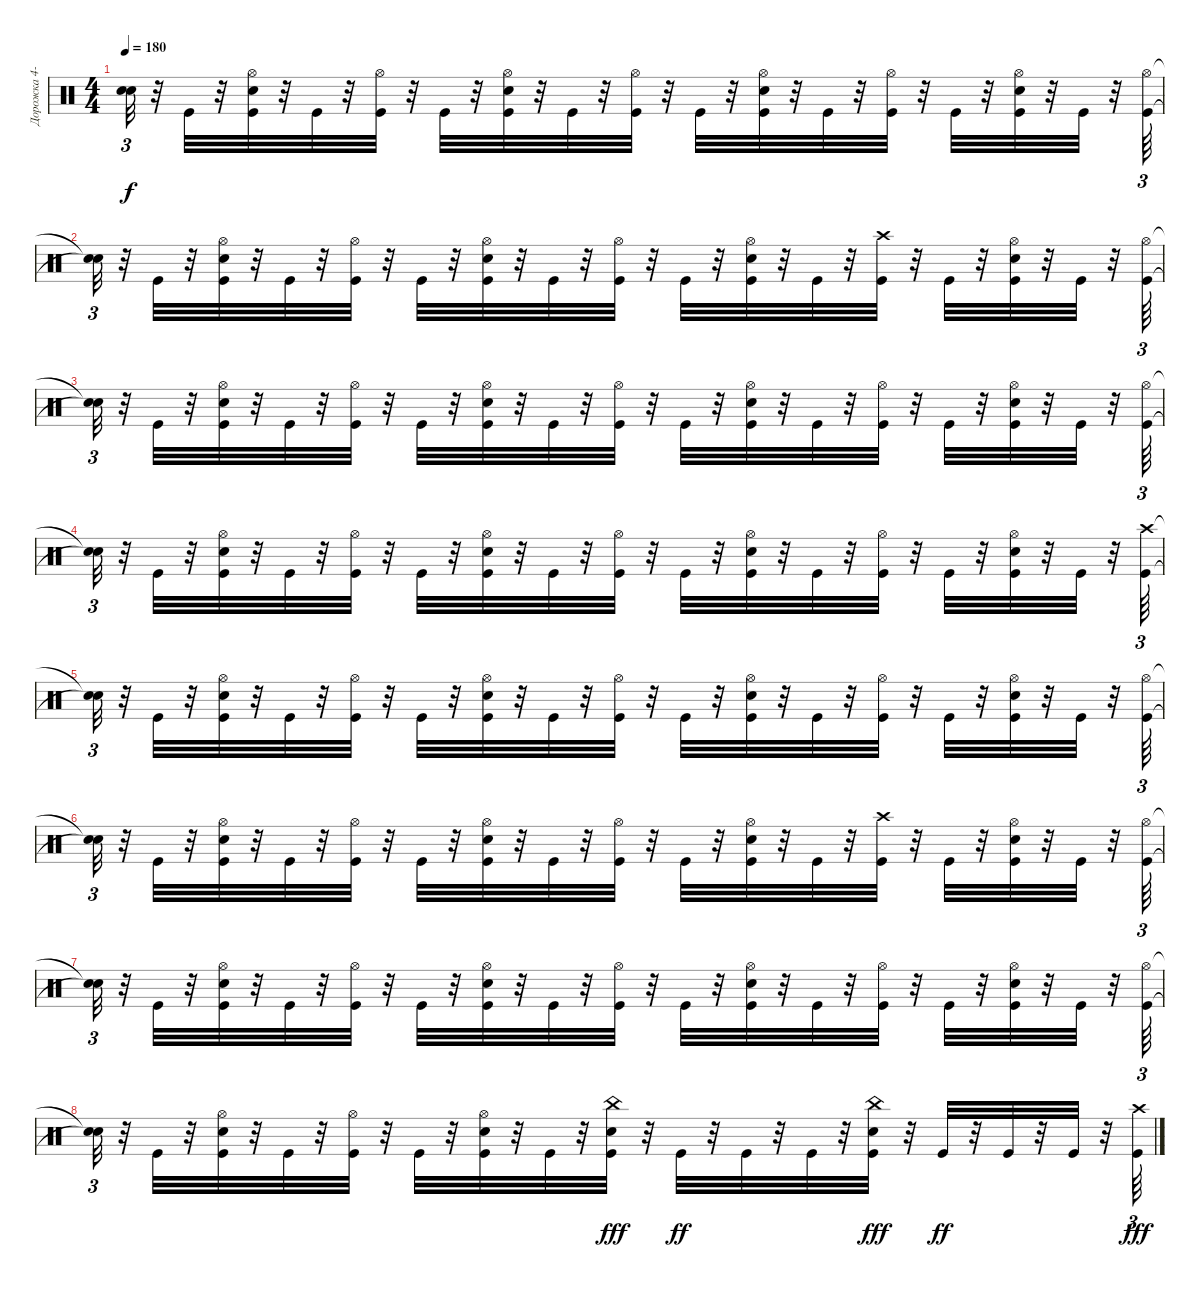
\track ("Дорожка 4-10-11" "Дорожка 4-") {instrument percussion}
\staff {score}
\articulation defaults
\ts (4 4)
\tempo 180
\clef neutral
\ks c
("Snare (hit)"{t} "Snare (hit)"{t}).32{tu (3 2) dy f} r.32 "Kick (hit)".32 r.32 ("Hi-Hat (open)" "Snare (hit) 2" "Kick (hit)").32 r.32 "Kick (hit)".32 r.32 ("Kick (hit)" "Hi-Hat (open)").32 r.32 "Kick (hit)".32 r.32 ("Snare (hit) 2" "Kick (hit)" "Hi-Hat (open)").32 r.32 "Kick (hit)".32 r.32 ("Hi-Hat (open)" "Kick (hit)").32 r.32 "Kick (hit)".32 r.32 ("Hi-Hat (open)" "Snare (hit) 2" "Kick (hit)").32 r.32 "Kick (hit)".32 r.32 ("Hi-Hat (open)" "Kick (hit)").32 r.32 "Kick (hit)".32 r.32 ("Hi-Hat (open)" "Snare (hit) 2" "Kick (hit)").32 r.32 "Kick (hit)".32 r.32 ("Hi-Hat (open)" "Kick (hit)").64{tu (3 2)} |
("Snare (hit)"{t} "Snare (hit)"{t}).32{tu (3 2)} r.32 "Kick (hit)".32 r.32 ("Hi-Hat (open)" "Snare (hit) 2" "Kick (hit)").32 r.32 "Kick (hit)".32 r.32 ("Kick (hit)" "Hi-Hat (open)").32 r.32 "Kick (hit)".32 r.32 ("Snare (hit) 2" "Kick (hit)" "Hi-Hat (open)").32 r.32 "Kick (hit)".32 r.32 ("Hi-Hat (open)" "Kick (hit)").32 r.32 "Kick (hit)".32 r.32 ("Hi-Hat (open)" "Snare (hit) 2" "Kick (hit)").32 r.32 "Kick (hit)".32 r.32 ("Crash high (hit)" "Kick (hit)").32 r.32 "Kick (hit)".32 r.32 ("Hi-Hat (open)" "Snare (hit) 2" "Kick (hit)").32 r.32 "Kick (hit)".32 r.32 ("Hi-Hat (open)" "Kick (hit)").64{tu (3 2)} |
("Snare (hit)"{t} "Snare (hit)"{t}).32{tu (3 2)} r.32 "Kick (hit)".32 r.32 ("Hi-Hat (open)" "Snare (hit) 2" "Kick (hit)").32 r.32 "Kick (hit)".32 r.32 ("Kick (hit)" "Hi-Hat (open)").32 r.32 "Kick (hit)".32 r.32 ("Snare (hit) 2" "Kick (hit)" "Hi-Hat (open)").32 r.32 "Kick (hit)".32 r.32 ("Hi-Hat (open)" "Kick (hit)").32 r.32 "Kick (hit)".32 r.32 ("Hi-Hat (open)" "Snare (hit) 2" "Kick (hit)").32 r.32 "Kick (hit)".32 r.32 ("Hi-Hat (open)" "Kick (hit)").32 r.32 "Kick (hit)".32 r.32 ("Hi-Hat (open)" "Snare (hit) 2" "Kick (hit)").32 r.32 "Kick (hit)".32 r.32 ("Hi-Hat (open)" "Kick (hit)").64{tu (3 2)} |
("Snare (hit)"{t} "Snare (hit)"{t}).32{tu (3 2)} r.32 "Kick (hit)".32 r.32 ("Hi-Hat (open)" "Snare (hit) 2" "Kick (hit)").32 r.32 "Kick (hit)".32 r.32 ("Kick (hit)" "Hi-Hat (open)").32 r.32 "Kick (hit)".32 r.32 ("Snare (hit) 2" "Kick (hit)" "Hi-Hat (open)").32 r.32 "Kick (hit)".32 r.32 ("Hi-Hat (open)" "Kick (hit)").32 r.32 "Kick (hit)".32 r.32 ("Hi-Hat (open)" "Snare (hit) 2" "Kick (hit)").32 r.32 "Kick (hit)".32 r.32 ("Hi-Hat (open)" "Kick (hit)").32 r.32 "Kick (hit)".32 r.32 ("Hi-Hat (open)" "Snare (hit) 2" "Kick (hit)").32 r.32 "Kick (hit)".32 r.32 ("Crash high (hit)" "Kick (hit)").64{tu (3 2)} |
("Snare (hit)"{t} "Snare (hit)"{t}).32{tu (3 2)} r.32 "Kick (hit)".32 r.32 ("Hi-Hat (open)" "Snare (hit) 2" "Kick (hit)").32 r.32 "Kick (hit)".32 r.32 ("Kick (hit)" "Hi-Hat (open)").32 r.32 "Kick (hit)".32 r.32 ("Snare (hit) 2" "Kick (hit)" "Hi-Hat (open)").32 r.32 "Kick (hit)".32 r.32 ("Hi-Hat (open)" "Kick (hit)").32 r.32 "Kick (hit)".32 r.32 ("Hi-Hat (open)" "Snare (hit) 2" "Kick (hit)").32 r.32 "Kick (hit)".32 r.32 ("Hi-Hat (open)" "Kick (hit)").32 r.32 "Kick (hit)".32 r.32 ("Hi-Hat (open)" "Snare (hit) 2" "Kick (hit)").32 r.32 "Kick (hit)".32 r.32 ("Hi-Hat (open)" "Kick (hit)").64{tu (3 2)} |
("Snare (hit)"{t} "Snare (hit)"{t}).32{tu (3 2)} r.32 "Kick (hit)".32 r.32 ("Hi-Hat (open)" "Snare (hit) 2" "Kick (hit)").32 r.32 "Kick (hit)".32 r.32 ("Kick (hit)" "Hi-Hat (open)").32 r.32 "Kick (hit)".32 r.32 ("Snare (hit) 2" "Kick (hit)" "Hi-Hat (open)").32 r.32 "Kick (hit)".32 r.32 ("Hi-Hat (open)" "Kick (hit)").32 r.32 "Kick (hit)".32 r.32 ("Hi-Hat (open)" "Snare (hit) 2" "Kick (hit)").32 r.32 "Kick (hit)".32 r.32 ("Crash high (hit)" "Kick (hit)").32 r.32 "Kick (hit)".32 r.32 ("Hi-Hat (open)" "Snare (hit) 2" "Kick (hit)").32 r.32 "Kick (hit)".32 r.32 ("Hi-Hat (open)" "Kick (hit)").64{tu (3 2)} |
("Snare (hit)"{t} "Snare (hit)"{t}).32{tu (3 2)} r.32 "Kick (hit)".32 r.32 ("Hi-Hat (open)" "Snare (hit) 2" "Kick (hit)").32 r.32 "Kick (hit)".32 r.32 ("Kick (hit)" "Hi-Hat (open)").32 r.32 "Kick (hit)".32 r.32 ("Snare (hit) 2" "Kick (hit)" "Hi-Hat (open)").32 r.32 "Kick (hit)".32 r.32 ("Hi-Hat (open)" "Kick (hit)").32 r.32 "Kick (hit)".32 r.32 ("Hi-Hat (open)" "Snare (hit) 2" "Kick (hit)").32 r.32 "Kick (hit)".32 r.32 ("Hi-Hat (open)" "Kick (hit)").32 r.32 "Kick (hit)".32 r.32 ("Hi-Hat (open)" "Snare (hit) 2" "Kick (hit)").32 r.32 "Kick (hit)".32 r.32 ("Hi-Hat (open)" "Kick (hit)").64{tu (3 2)} |
("Snare (hit)"{t} "Snare (hit)"{t}).32{tu (3 2)} r.32 "Kick (hit)".32 r.32 ("Hi-Hat (open)" "Snare (hit) 2" "Kick (hit)").32 r.32 "Kick (hit)".32 r.32 ("Kick (hit)" "Hi-Hat (open)").32 r.32 "Kick (hit)".32 r.32 ("Snare (hit) 2" "Kick (hit)" "Hi-Hat (open)").32 r.32 "Kick (hit)".32 r.32 ("Kick (hit)" "Snare (hit) 2" "China (hit)").32{dy fff} r.32 "Kick (hit)".32{dy ff} r.32 "Kick (hit)".32 r.32 "Kick (hit)".32 r.32 ("Kick (hit)" "Snare (hit) 2" "China (hit)").32{dy fff} r.32 "Kick (hit)".32{dy ff} r.32 "Kick (hit)".32 r.32 "Kick (hit)".32 r.32 ("Crash high (hit)" "Kick (hit)").64{tu (3 2) dy fff}
